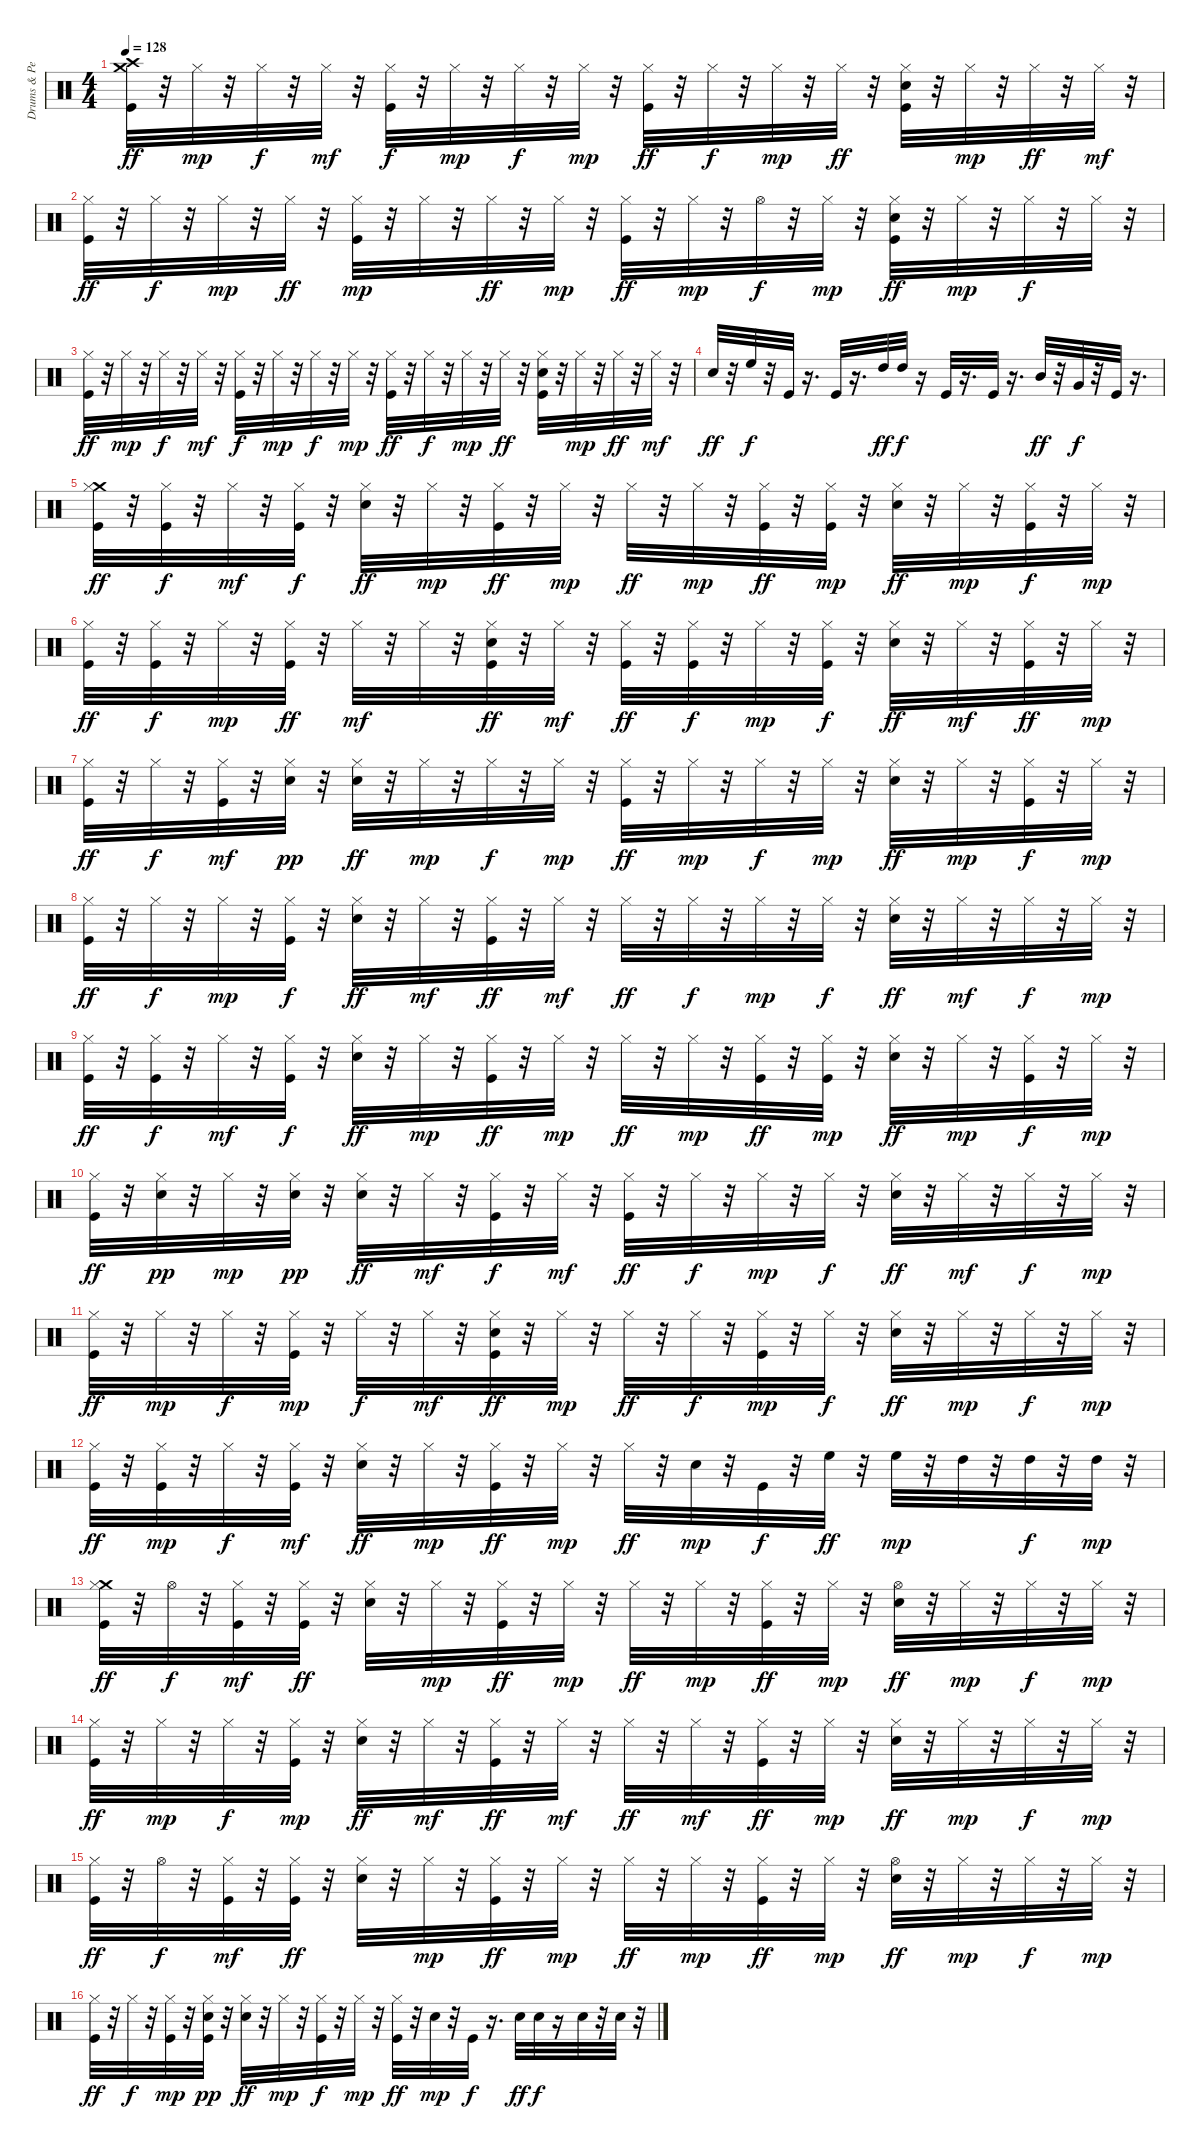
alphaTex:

\track ("Drums & Percussion" "Drums & Pe") {instrument percussion}
\staff {score}
\articulation defaults
\ts (4 4)
\tempo 128
\clef neutral
\ks c
("Crash medium (hit)" "Kick (hit)" "Crash high (hit)").32{dy ff} r.32 "Hi-Hat (closed)".32{dy mp} r.32 "Hi-Hat (closed)".32{dy f} r.32 "Hi-Hat (closed)".32{dy mf} r.32 ("Kick (hit)" "Hi-Hat (closed)").32{dy f} r.32 "Hi-Hat (closed)".32{dy mp} r.32 "Hi-Hat (closed)".32{dy f} r.32 "Hi-Hat (closed)".32{dy mp} r.32 ("Kick (hit)" "Hi-Hat (closed)").32{dy ff} r.32 "Hi-Hat (closed)".32{dy f} r.32 "Hi-Hat (closed)".32{dy mp} r.32 "Hi-Hat (closed)".32{dy ff} r.32 ("Kick (hit)" "Hi-Hat (closed)" "Electric Snare (hit)").32 r.32 "Hi-Hat (closed)".32{dy mp} r.32 "Hi-Hat (closed)".32{dy ff} r.32 "Hi-Hat (closed)".32{dy mf} r.32 |
("Kick (hit)" "Hi-Hat (closed)").32{dy ff} r.32 "Hi-Hat (closed)".32{dy f} r.32 "Hi-Hat (closed)".32{dy mp} r.32 "Hi-Hat (closed)".32{dy ff} r.32 ("Kick (hit)" "Hi-Hat (closed)").32{dy mp} r.32 "Hi-Hat (closed)".32 r.32 "Hi-Hat (closed)".32{dy ff} r.32 "Hi-Hat (closed)".32{dy mp} r.32 ("Kick (hit)" "Hi-Hat (closed)").32{dy ff} r.32 "Hi-Hat (closed)".32{dy mp} r.32 "Hi-Hat (open)".32{dy f} r.32 "Hi-Hat (closed)".32{dy mp} r.32 ("Kick (hit)" "Hi-Hat (closed)" "Electric Snare (hit)").32{dy ff} r.32 "Hi-Hat (closed)".32{dy mp} r.32 "Hi-Hat (closed)".32{dy f} r.32 "Hi-Hat (closed)".32 r.32 |
("Kick (hit)" "Hi-Hat (closed)").32{dy ff} r.32 "Hi-Hat (closed)".32{dy mp} r.32 "Hi-Hat (closed)".32{dy f} r.32 "Hi-Hat (closed)".32{dy mf} r.32 ("Kick (hit)" "Hi-Hat (closed)").32{dy f} r.32 "Hi-Hat (closed)".32{dy mp} r.32 "Hi-Hat (closed)".32{dy f} r.32 "Hi-Hat (closed)".32{dy mp} r.32 ("Kick (hit)" "Hi-Hat (closed)").32{dy ff} r.32 "Hi-Hat (closed)".32{dy f} r.32 "Hi-Hat (closed)".32{dy mp} r.32 "Hi-Hat (closed)".32{dy ff} r.32 ("Kick (hit)" "Hi-Hat (closed)" "Electric Snare (hit)").32 r.32 "Hi-Hat (closed)".32{dy mp} r.32 "Hi-Hat (closed)".32{dy ff} r.32 "Hi-Hat (closed)".32{dy mf} r.32 |
"Electric Snare (hit)".32{dy ff} r.32 "High Floor Tom (hit)".32{dy f} r.32 "Kick (hit)".32 r.16{d} "Kick (hit)".32 r.16{d} "High Tom (hit)".32{dy ff} "High Tom (hit)".32{dy f} r.16 "Kick (hit)".32 r.16{d} "Kick (hit)".32 r.16{d} "Mid Tom (hit)".32{dy ff} r.32 "Very Low Tom (hit)".32{dy f} r.32 "Kick (hit)".32 r.16{d} |
("Crash medium (hit)" "Kick (hit)" "Hi-Hat (closed)").32{dy ff} r.32 ("Kick (hit)" "Hi-Hat (closed)").32{dy f} r.32 "Hi-Hat (closed)".32{dy mf} r.32 ("Kick (hit)" "Hi-Hat (closed)").32{dy f} r.32 ("Hi-Hat (closed)" "Electric Snare (hit)").32{dy ff} r.32 "Hi-Hat (closed)".32{dy mp} r.32 ("Kick (hit)" "Hi-Hat (closed)").32{dy ff} r.32 "Hi-Hat (closed)".32{dy mp} r.32 "Hi-Hat (closed)".32{dy ff} r.32 "Hi-Hat (closed)".32{dy mp} r.32 ("Kick (hit)" "Hi-Hat (closed)").32{dy ff} r.32 ("Kick (hit)" "Hi-Hat (closed)").32{dy mp} r.32 ("Hi-Hat (closed)" "Electric Snare (hit)").32{dy ff} r.32 "Hi-Hat (closed)".32{dy mp} r.32 ("Kick (hit)" "Hi-Hat (closed)").32{dy f} r.32 "Hi-Hat (closed)".32{dy mp} r.32 |
("Kick (hit)" "Hi-Hat (closed)").32{dy ff} r.32 ("Kick (hit)" "Hi-Hat (closed)").32{dy f} r.32 "Hi-Hat (closed)".32{dy mp} r.32 ("Kick (hit)" "Hi-Hat (closed)").32{dy ff} r.32 "Hi-Hat (closed)".32{dy mf} r.32 "Hi-Hat (closed)".32 r.32 ("Kick (hit)" "Hi-Hat (closed)" "Electric Snare (hit)").32{dy ff} r.32 "Hi-Hat (closed)".32{dy mf} r.32 ("Kick (hit)" "Hi-Hat (closed)").32{dy ff} r.32 ("Kick (hit)" "Hi-Hat (closed)").32{dy f} r.32 "Hi-Hat (closed)".32{dy mp} r.32 ("Kick (hit)" "Hi-Hat (closed)").32{dy f} r.32 ("Hi-Hat (closed)" "Electric Snare (hit)").32{dy ff} r.32 "Hi-Hat (closed)".32{dy mf} r.32 ("Kick (hit)" "Hi-Hat (closed)").32{dy ff} r.32 "Hi-Hat (closed)".32{dy mp} r.32 |
("Kick (hit)" "Hi-Hat (closed)").32{dy ff} r.32 "Hi-Hat (closed)".32{dy f} r.32 ("Kick (hit)" "Hi-Hat (closed)").32{dy mf} r.32 ("Hi-Hat (closed)" "Electric Snare (hit)").32{dy pp} r.32 ("Hi-Hat (closed)" "Electric Snare (hit)").32{dy ff} r.32 "Hi-Hat (closed)".32{dy mp} r.32 "Hi-Hat (closed)".32{dy f} r.32 "Hi-Hat (closed)".32{dy mp} r.32 ("Kick (hit)" "Hi-Hat (closed)").32{dy ff} r.32 "Hi-Hat (closed)".32{dy mp} r.32 "Hi-Hat (closed)".32{dy f} r.32 "Hi-Hat (closed)".32{dy mp} r.32 ("Hi-Hat (closed)" "Electric Snare (hit)").32{dy ff} r.32 "Hi-Hat (closed)".32{dy mp} r.32 ("Kick (hit)" "Hi-Hat (closed)").32{dy f} r.32 "Hi-Hat (closed)".32{dy mp} r.32 |
("Kick (hit)" "Hi-Hat (closed)").32{dy ff} r.32 "Hi-Hat (closed)".32{dy f} r.32 "Hi-Hat (closed)".32{dy mp} r.32 ("Kick (hit)" "Hi-Hat (closed)").32{dy f} r.32 ("Hi-Hat (closed)" "Electric Snare (hit)").32{dy ff} r.32 "Hi-Hat (closed)".32{dy mf} r.32 ("Kick (hit)" "Hi-Hat (closed)").32{dy ff} r.32 "Hi-Hat (closed)".32{dy mf} r.32 "Hi-Hat (closed)".32{dy ff} r.32 "Hi-Hat (closed)".32{dy f} r.32 "Hi-Hat (closed)".32{dy mp} r.32 "Hi-Hat (closed)".32{dy f} r.32 ("Hi-Hat (closed)" "Electric Snare (hit)").32{dy ff} r.32 "Hi-Hat (closed)".32{dy mf} r.32 "Hi-Hat (closed)".32{dy f} r.32 "Hi-Hat (closed)".32{dy mp} r.32 |
("Kick (hit)" "Hi-Hat (closed)").32{dy ff} r.32 ("Kick (hit)" "Hi-Hat (closed)").32{dy f} r.32 "Hi-Hat (closed)".32{dy mf} r.32 ("Kick (hit)" "Hi-Hat (closed)").32{dy f} r.32 ("Hi-Hat (closed)" "Electric Snare (hit)").32{dy ff} r.32 "Hi-Hat (closed)".32{dy mp} r.32 ("Kick (hit)" "Hi-Hat (closed)").32{dy ff} r.32 "Hi-Hat (closed)".32{dy mp} r.32 "Hi-Hat (closed)".32{dy ff} r.32 "Hi-Hat (closed)".32{dy mp} r.32 ("Kick (hit)" "Hi-Hat (closed)").32{dy ff} r.32 ("Kick (hit)" "Hi-Hat (closed)").32{dy mp} r.32 ("Hi-Hat (closed)" "Electric Snare (hit)").32{dy ff} r.32 "Hi-Hat (closed)".32{dy mp} r.32 ("Kick (hit)" "Hi-Hat (closed)").32{dy f} r.32 "Hi-Hat (closed)".32{dy mp} r.32 |
("Kick (hit)" "Hi-Hat (closed)").32{dy ff} r.32 ("Hi-Hat (closed)" "Electric Snare (hit)").32{dy pp} r.32 "Hi-Hat (closed)".32{dy mp} r.32 ("Hi-Hat (closed)" "Electric Snare (hit)").32{dy pp} r.32 ("Hi-Hat (closed)" "Electric Snare (hit)").32{dy ff} r.32 "Hi-Hat (closed)".32{dy mf} r.32 ("Kick (hit)" "Hi-Hat (closed)").32{dy f} r.32 "Hi-Hat (closed)".32{dy mf} r.32 ("Kick (hit)" "Hi-Hat (closed)").32{dy ff} r.32 "Hi-Hat (closed)".32{dy f} r.32 "Hi-Hat (closed)".32{dy mp} r.32 "Hi-Hat (closed)".32{dy f} r.32 ("Hi-Hat (closed)" "Electric Snare (hit)").32{dy ff} r.32 "Hi-Hat (closed)".32{dy mf} r.32 "Hi-Hat (closed)".32{dy f} r.32 "Hi-Hat (closed)".32{dy mp} r.32 |
("Kick (hit)" "Hi-Hat (closed)").32{dy ff} r.32 "Hi-Hat (closed)".32{dy mp} r.32 "Hi-Hat (closed)".32{dy f} r.32 ("Kick (hit)" "Hi-Hat (closed)").32{dy mp} r.32 "Hi-Hat (closed)".32{dy f} r.32 "Hi-Hat (closed)".32{dy mf} r.32 ("Kick (hit)" "Hi-Hat (closed)" "Electric Snare (hit)").32{dy ff} r.32 "Hi-Hat (closed)".32{dy mp} r.32 "Hi-Hat (closed)".32{dy ff} r.32 "Hi-Hat (closed)".32{dy f} r.32 ("Kick (hit)" "Hi-Hat (closed)").32{dy mp} r.32 "Hi-Hat (closed)".32{dy f} r.32 ("Hi-Hat (closed)" "Electric Snare (hit)").32{dy ff} r.32 "Hi-Hat (closed)".32{dy mp} r.32 "Hi-Hat (closed)".32{dy f} r.32 "Hi-Hat (closed)".32{dy mp} r.32 |
("Kick (hit)" "Hi-Hat (closed)").32{dy ff} r.32 ("Kick (hit)" "Hi-Hat (closed)").32{dy mp} r.32 "Hi-Hat (closed)".32{dy f} r.32 ("Kick (hit)" "Hi-Hat (closed)").32{dy mf} r.32 ("Hi-Hat (closed)" "Electric Snare (hit)").32{dy ff} r.32 "Hi-Hat (closed)".32{dy mp} r.32 ("Kick (hit)" "Hi-Hat (closed)").32{dy ff} r.32 "Hi-Hat (closed)".32{dy mp} r.32 "Hi-Hat (closed)".32{dy ff} r.32 "Electric Snare (hit)".32{dy mp} r.32 "Kick (hit)".32{dy f} r.32 "High Floor Tom (hit)".32{dy ff} r.32 "High Floor Tom (hit)".32{dy mp} r.32 "High Tom (hit)".32 r.32 "High Tom (hit)".32{dy f} r.32 "High Tom (hit)".32{dy mp} r.32 |
("Crash medium (hit)" "Kick (hit)" "Hi-Hat (closed)").32{dy ff} r.32 "Hi-Hat (open)".32{dy f} r.32 ("Kick (hit)" "Hi-Hat (closed)").32{dy mf} r.32 ("Kick (hit)" "Hi-Hat (closed)").32{dy ff} r.32 ("Hi-Hat (closed)" "Electric Snare (hit)").32 r.32 "Hi-Hat (closed)".32{dy mp} r.32 ("Kick (hit)" "Hi-Hat (closed)").32{dy ff} r.32 "Hi-Hat (closed)".32{dy mp} r.32 "Hi-Hat (closed)".32{dy ff} r.32 "Hi-Hat (closed)".32{dy mp} r.32 ("Kick (hit)" "Hi-Hat (closed)").32{dy ff} r.32 "Hi-Hat (closed)".32{dy mp} r.32 ("Hi-Hat (open)" "Electric Snare (hit)").32{dy ff} r.32 "Hi-Hat (closed)".32{dy mp} r.32 "Hi-Hat (closed)".32{dy f} r.32 "Hi-Hat (closed)".32{dy mp} r.32 |
("Kick (hit)" "Hi-Hat (closed)").32{dy ff} r.32 "Hi-Hat (closed)".32{dy mp} r.32 "Hi-Hat (closed)".32{dy f} r.32 ("Kick (hit)" "Hi-Hat (closed)").32{dy mp} r.32 ("Hi-Hat (closed)" "Electric Snare (hit)").32{dy ff} r.32 "Hi-Hat (closed)".32{dy mf} r.32 ("Kick (hit)" "Hi-Hat (closed)").32{dy ff} r.32 "Hi-Hat (closed)".32{dy mf} r.32 "Hi-Hat (closed)".32{dy ff} r.32 "Hi-Hat (closed)".32{dy mf} r.32 ("Kick (hit)" "Hi-Hat (closed)").32{dy ff} r.32 "Hi-Hat (closed)".32{dy mp} r.32 ("Hi-Hat (closed)" "Electric Snare (hit)").32{dy ff} r.32 "Hi-Hat (closed)".32{dy mp} r.32 "Hi-Hat (closed)".32{dy f} r.32 "Hi-Hat (closed)".32{dy mp} r.32 |
("Kick (hit)" "Hi-Hat (closed)").32{dy ff} r.32 "Hi-Hat (open)".32{dy f} r.32 ("Kick (hit)" "Hi-Hat (closed)").32{dy mf} r.32 ("Kick (hit)" "Hi-Hat (closed)").32{dy ff} r.32 ("Hi-Hat (closed)" "Electric Snare (hit)").32 r.32 "Hi-Hat (closed)".32{dy mp} r.32 ("Kick (hit)" "Hi-Hat (closed)").32{dy ff} r.32 "Hi-Hat (closed)".32{dy mp} r.32 "Hi-Hat (closed)".32{dy ff} r.32 "Hi-Hat (closed)".32{dy mp} r.32 ("Kick (hit)" "Hi-Hat (closed)").32{dy ff} r.32 "Hi-Hat (closed)".32{dy mp} r.32 ("Hi-Hat (open)" "Electric Snare (hit)").32{dy ff} r.32 "Hi-Hat (closed)".32{dy mp} r.32 "Hi-Hat (closed)".32{dy f} r.32 "Hi-Hat (closed)".32{dy mp} r.32 |
("Kick (hit)" "Hi-Hat (closed)").32{dy ff} r.32 "Hi-Hat (closed)".32{dy f} r.32 ("Kick (hit)" "Hi-Hat (closed)").32{dy mp} r.32 ("Kick (hit)" "Hi-Hat (closed)" "Electric Snare (hit)").32{dy pp} r.32 ("Hi-Hat (closed)" "Electric Snare (hit)").32{dy ff} r.32 "Hi-Hat (closed)".32{dy mp} r.32 ("Kick (hit)" "Hi-Hat (closed)").32{dy f} r.32 "Hi-Hat (closed)".32{dy mp} r.32 ("Kick (hit)" "Hi-Hat (closed)").32{dy ff} r.32 "Electric Snare (hit)".32{dy mp} r.32 "Kick (hit)".32{dy f} r.16{d} "Electric Snare (hit)".32{dy ff} "Electric Snare (hit)".32{dy f} r.16 "Electric Snare (hit)".32 r.32 "Electric Snare (hit)".32 r.32
